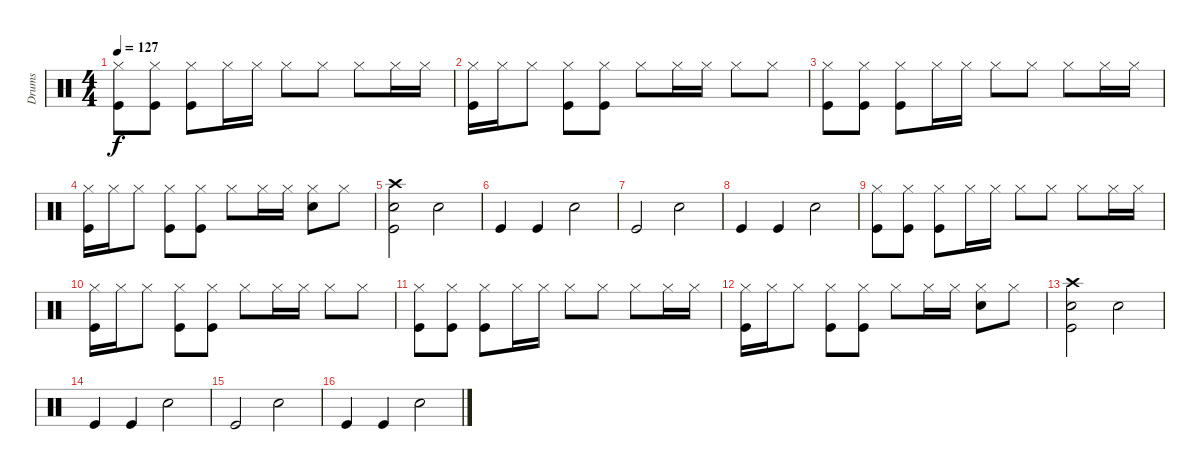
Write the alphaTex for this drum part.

\track ("Drums" "Drums") {instrument percussion}
\staff {score}
\articulation defaults
\ts (4 4)
\tempo 127
\clef neutral
\ks c
("Hi-Hat (closed)" "Kick (hit)").8{dy f} ("Hi-Hat (closed)" "Kick (hit)").8 ("Hi-Hat (closed)" "Kick (hit)").8 "Hi-Hat (closed)".16 "Hi-Hat (closed)".16 "Hi-Hat (closed)".8 "Hi-Hat (closed)".8 "Hi-Hat (closed)".8 "Hi-Hat (closed)".16 "Hi-Hat (closed)".16 |
("Hi-Hat (closed)" "Kick (hit)").16 "Hi-Hat (closed)".16 "Hi-Hat (closed)".8 ("Hi-Hat (closed)" "Kick (hit)").8 ("Hi-Hat (closed)" "Kick (hit)").8 "Hi-Hat (closed)".8 "Hi-Hat (closed)".16 "Hi-Hat (closed)".16 "Hi-Hat (closed)".8 "Hi-Hat (closed)".8 |
("Hi-Hat (closed)" "Kick (hit)").8 ("Hi-Hat (closed)" "Kick (hit)").8 ("Hi-Hat (closed)" "Kick (hit)").8 "Hi-Hat (closed)".16 "Hi-Hat (closed)".16 "Hi-Hat (closed)".8 "Hi-Hat (closed)".8 "Hi-Hat (closed)".8 "Hi-Hat (closed)".16 "Hi-Hat (closed)".16 |
("Hi-Hat (closed)" "Kick (hit)").16 "Hi-Hat (closed)".16 "Hi-Hat (closed)".8 ("Hi-Hat (closed)" "Kick (hit)").8 ("Hi-Hat (closed)" "Kick (hit)").8 "Hi-Hat (closed)".8 "Hi-Hat (closed)".16 "Hi-Hat (closed)".16 ("Hi-Hat (closed)" "Electric Snare (hit)").8 "Hi-Hat (closed)".8 |
("Crash high (hit)" "Electric Snare (hit)" "Kick (hit)").2 "Electric Snare (hit)".2 |
"Kick (hit)".4 "Kick (hit)".4 "Electric Snare (hit)".2 |
"Kick (hit)".2 "Electric Snare (hit)".2 |
"Kick (hit)".4 "Kick (hit)".4 "Electric Snare (hit)".2 |
("Hi-Hat (closed)" "Kick (hit)").8 ("Hi-Hat (closed)" "Kick (hit)").8 ("Hi-Hat (closed)" "Kick (hit)").8 "Hi-Hat (closed)".16 "Hi-Hat (closed)".16 "Hi-Hat (closed)".8 "Hi-Hat (closed)".8 "Hi-Hat (closed)".8 "Hi-Hat (closed)".16 "Hi-Hat (closed)".16 |
("Hi-Hat (closed)" "Kick (hit)").16 "Hi-Hat (closed)".16 "Hi-Hat (closed)".8 ("Hi-Hat (closed)" "Kick (hit)").8 ("Hi-Hat (closed)" "Kick (hit)").8 "Hi-Hat (closed)".8 "Hi-Hat (closed)".16 "Hi-Hat (closed)".16 "Hi-Hat (closed)".8 "Hi-Hat (closed)".8 |
("Hi-Hat (closed)" "Kick (hit)").8 ("Hi-Hat (closed)" "Kick (hit)").8 ("Hi-Hat (closed)" "Kick (hit)").8 "Hi-Hat (closed)".16 "Hi-Hat (closed)".16 "Hi-Hat (closed)".8 "Hi-Hat (closed)".8 "Hi-Hat (closed)".8 "Hi-Hat (closed)".16 "Hi-Hat (closed)".16 |
("Hi-Hat (closed)" "Kick (hit)").16 "Hi-Hat (closed)".16 "Hi-Hat (closed)".8 ("Hi-Hat (closed)" "Kick (hit)").8 ("Hi-Hat (closed)" "Kick (hit)").8 "Hi-Hat (closed)".8 "Hi-Hat (closed)".16 "Hi-Hat (closed)".16 ("Hi-Hat (closed)" "Electric Snare (hit)").8 "Hi-Hat (closed)".8 |
("Crash high (hit)" "Electric Snare (hit)" "Kick (hit)").2 "Electric Snare (hit)".2 |
"Kick (hit)".4 "Kick (hit)".4 "Electric Snare (hit)".2 |
"Kick (hit)".2 "Electric Snare (hit)".2 |
"Kick (hit)".4 "Kick (hit)".4 "Electric Snare (hit)".2
